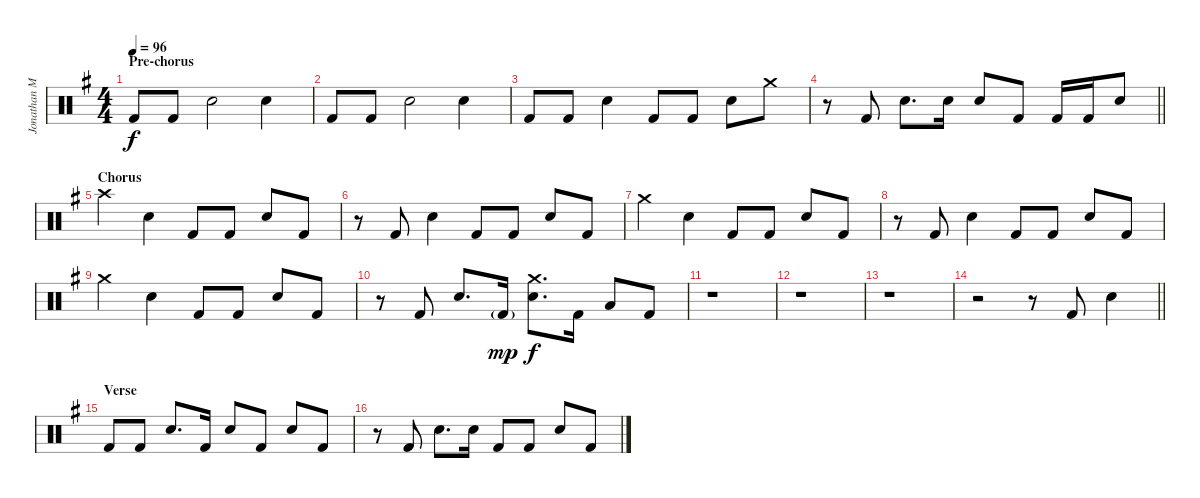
\track ("Jonathan Mover (Drums)" "Jonathan M") {instrument percussion}
\staff {score}
\articulation defaults
\ts (4 4)
\section ("" "Pre-chorus")
\tempo 96
\clef neutral
\ks g "Kick (hit) 2".8{dy f} "Kick (hit) 2".8 "Electric Snare (hit)".2 "Electric Snare (hit)".4
|
"Kick (hit) 2".8 "Kick (hit) 2".8 "Electric Snare (hit)".2 "Electric Snare (hit)".4 |
"Kick (hit) 2".8 "Kick (hit) 2".8 "Electric Snare (hit)".4 "Kick (hit) 2".8 "Kick (hit) 2".8 "Electric Snare (hit)".8 "Crash medium (hit)".8 |
\barLineRight lightlight
r.8 "Kick (hit) 2".8 "Electric Snare (hit)".8{d} "Electric Snare (hit)".16 "Electric Snare (hit)".8 "Kick (hit) 2".8 "Kick (hit) 2".16 "Kick (hit) 2".16 "Electric Snare (hit)".8 |
\section ("" "Chorus")
"Crash high (hit)".4 "Electric Snare (hit)".4 "Kick (hit) 2".8 "Kick (hit) 2".8 "Electric Snare (hit)".8 "Kick (hit) 2".8 |
r.8 "Kick (hit) 2".8 "Electric Snare (hit)".4 "Kick (hit) 2".8 "Kick (hit) 2".8 "Electric Snare (hit)".8 "Kick (hit) 2".8 |
"Crash medium (hit)".4 "Electric Snare (hit)".4 "Kick (hit) 2".8 "Kick (hit) 2".8 "Electric Snare (hit)".8 "Kick (hit) 2".8 |
r.8 "Kick (hit) 2".8 "Electric Snare (hit)".4 "Kick (hit) 2".8 "Kick (hit) 2".8 "Electric Snare (hit)".8 "Kick (hit) 2".8 |
"Crash medium (hit)".4 "Electric Snare (hit)".4 "Kick (hit) 2".8 "Kick (hit) 2".8 "Electric Snare (hit)".8 "Kick (hit) 2".8 |
r.8 "Kick (hit) 2".8 "Electric Snare (hit)".8{d} "Kick (hit) 2"{g}.16{dy mp} ("Crash medium (hit)" "Electric Snare (hit)").8{d dy f} "Kick (hit) 2".16 "Low Tom (hit)".8 "Kick (hit) 2".8 |
r.1 |
r.1 |
r.1 |
\barLineRight lightlight
r.2 r.8 "Kick (hit) 2".8 "Electric Snare (hit)".4 |
\section ("" "Verse")
"Kick (hit) 2".8 "Kick (hit) 2".8 "Electric Snare (hit)".8{d} "Kick (hit) 2".16 "Electric Snare (hit)".8 "Kick (hit) 2".8 "Electric Snare (hit)".8 "Kick (hit) 2".8 |
r.8 "Kick (hit) 2".8 "Electric Snare (hit)".8{d} "Electric Snare (hit)".16 "Kick (hit) 2".8 "Kick (hit) 2".8 "Electric Snare (hit)".8 "Kick (hit) 2".8
